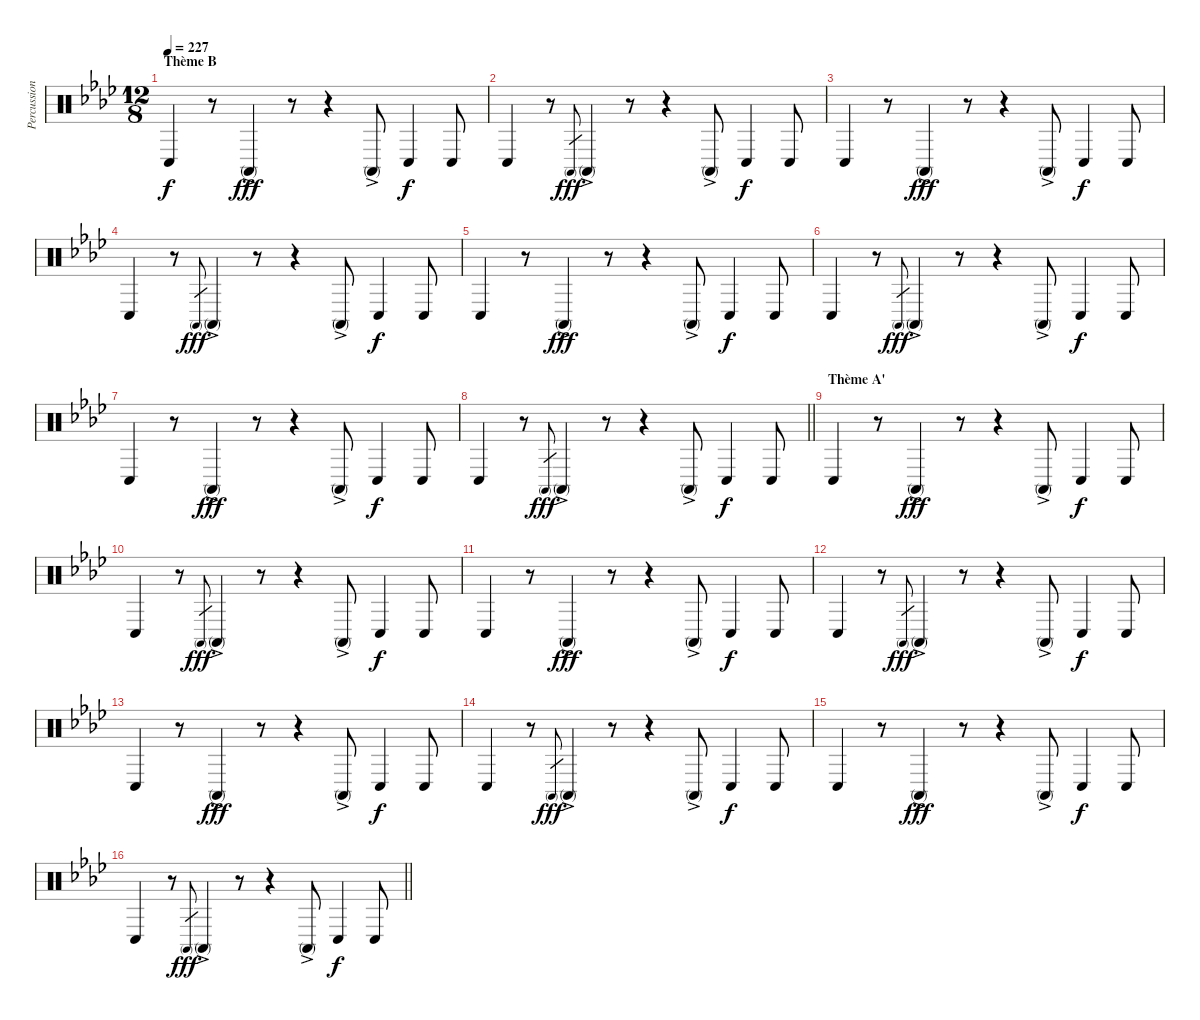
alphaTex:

\track ("Percussions" "Percussion") {instrument percussion}
\staff {score}
\articulation defaults
\ts (12 8)
\section ("" "Thème B")
\tempo 227
\clef neutral
\ks fminor "Conga low (hit)".4{dy f volume 11 balance 8}
r.8 "Conga high (mute)"{ac}.4{dy fff} r.8 r.4 "Conga high (mute)"{ac}.8 "Conga low (hit)".4{dy f} "Conga low (hit)".8 |
"Conga low (hit)".4 r.8 "Conga high (mute)".8{gr dy fff} "Conga high (mute)"{ac}.4 r.8 r.4 "Conga high (mute)"{ac}.8 "Conga low (hit)".4{dy f} "Conga low (hit)".8 |
"Conga low (hit)".4 r.8 "Conga high (mute)"{ac}.4{dy fff} r.8 r.4 "Conga high (mute)"{ac}.8 "Conga low (hit)".4{dy f} "Conga low (hit)".8 |
"Conga low (hit)".4 r.8 "Conga high (mute)".8{gr dy fff} "Conga high (mute)"{ac}.4 r.8 r.4 "Conga high (mute)"{ac}.8 "Conga low (hit)".4{dy f} "Conga low (hit)".8 |
"Conga low (hit)".4 r.8 "Conga high (mute)"{ac}.4{dy fff} r.8 r.4 "Conga high (mute)"{ac}.8 "Conga low (hit)".4{dy f} "Conga low (hit)".8 |
"Conga low (hit)".4 r.8 "Conga high (mute)".8{gr dy fff} "Conga high (mute)"{ac}.4 r.8 r.4 "Conga high (mute)"{ac}.8 "Conga low (hit)".4{dy f} "Conga low (hit)".8 |
"Conga low (hit)".4 r.8 "Conga high (mute)"{ac}.4{dy fff} r.8 r.4 "Conga high (mute)"{ac}.8 "Conga low (hit)".4{dy f} "Conga low (hit)".8 |
\barLineRight lightlight "Conga low (hit)".4
r.8 "Conga high (mute)".8{gr dy fff} "Conga high (mute)"{ac}.4 r.8 r.4 "Conga high (mute)"{ac}.8 "Conga low (hit)".4{dy f} "Conga low (hit)".8 |
\section ("" "Thème A'")
"Conga low (hit)".4{volume 13 balance 8} r.8 "Conga high (mute)"{ac}.4{dy fff} r.8 r.4 "Conga high (mute)"{ac}.8 "Conga low (hit)".4{dy f} "Conga low (hit)".8 |
"Conga low (hit)".4 r.8 "Conga high (mute)".8{gr dy fff} "Conga high (mute)"{ac}.4 r.8 r.4 "Conga high (mute)"{ac}.8 "Conga low (hit)".4{dy f} "Conga low (hit)".8 |
"Conga low (hit)".4 r.8 "Conga high (mute)"{ac}.4{dy fff} r.8 r.4 "Conga high (mute)"{ac}.8 "Conga low (hit)".4{dy f} "Conga low (hit)".8 |
"Conga low (hit)".4 r.8 "Conga high (mute)".8{gr dy fff} "Conga high (mute)"{ac}.4 r.8 r.4 "Conga high (mute)"{ac}.8 "Conga low (hit)".4{dy f} "Conga low (hit)".8 |
"Conga low (hit)".4 r.8 "Conga high (mute)"{ac}.4{dy fff} r.8 r.4 "Conga high (mute)"{ac}.8 "Conga low (hit)".4{dy f} "Conga low (hit)".8 |
"Conga low (hit)".4 r.8 "Conga high (mute)".8{gr dy fff} "Conga high (mute)"{ac}.4 r.8 r.4 "Conga high (mute)"{ac}.8 "Conga low (hit)".4{dy f} "Conga low (hit)".8 |
"Conga low (hit)".4 r.8 "Conga high (mute)"{ac}.4{dy fff} r.8 r.4 "Conga high (mute)"{ac}.8 "Conga low (hit)".4{dy f} "Conga low (hit)".8 |
\barLineRight lightlight "Conga low (hit)".4
r.8 "Conga high (mute)".8{gr dy fff} "Conga high (mute)"{ac}.4 r.8 r.4 "Conga high (mute)"{ac}.8 "Conga low (hit)".4{dy f} "Conga low (hit)".8
